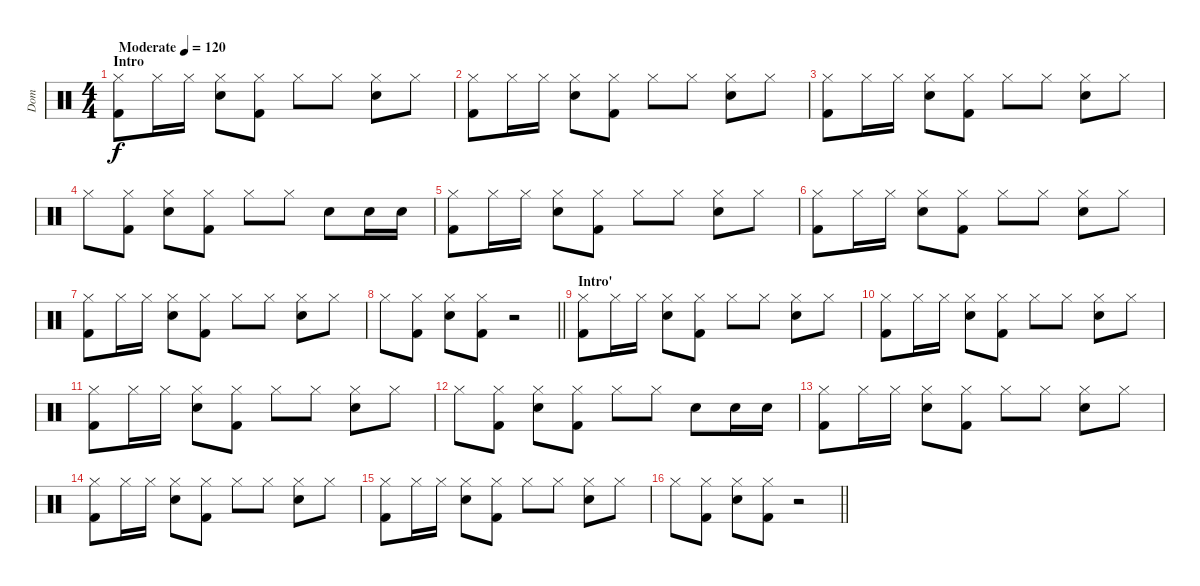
\track ("Dom" "Dom") {instrument percussion}
\staff {score}
\articulation defaults
\ts (4 4)
\section ("" "Intro")
\tempo (120 "Moderate")
\clef neutral
\ks c
("Kick (hit) 2" "Hi-Hat (closed)").8{dy f} "Hi-Hat (closed)".16 "Hi-Hat (closed)".16 ("Snare (hit) 2" "Hi-Hat (closed)").8 ("Kick (hit) 2" "Hi-Hat (closed)").8 "Hi-Hat (closed)".8 "Hi-Hat (closed)".8 ("Snare (hit) 2" "Hi-Hat (closed)").8 "Hi-Hat (closed)".8 |
("Kick (hit) 2" "Hi-Hat (closed)").8 "Hi-Hat (closed)".16 "Hi-Hat (closed)".16 ("Snare (hit) 2" "Hi-Hat (closed)").8 ("Kick (hit) 2" "Hi-Hat (closed)").8 "Hi-Hat (closed)".8 "Hi-Hat (closed)".8 ("Snare (hit) 2" "Hi-Hat (closed)").8 "Hi-Hat (closed)".8 |
("Kick (hit) 2" "Hi-Hat (closed)").8 "Hi-Hat (closed)".16 "Hi-Hat (closed)".16 ("Snare (hit) 2" "Hi-Hat (closed)").8 ("Kick (hit) 2" "Hi-Hat (closed)").8 "Hi-Hat (closed)".8 "Hi-Hat (closed)".8 ("Snare (hit) 2" "Hi-Hat (closed)").8 "Hi-Hat (closed)".8 |
"Hi-Hat (closed)".8 ("Kick (hit) 2" "Hi-Hat (closed)").8 ("Snare (hit) 2" "Hi-Hat (closed)").8 ("Kick (hit) 2" "Hi-Hat (closed)").8 "Hi-Hat (closed)".8 "Hi-Hat (closed)".8 "Snare (hit) 2".8 "Snare (hit) 2".16 "Snare (hit) 2".16 |
("Kick (hit) 2" "Hi-Hat (closed)").8 "Hi-Hat (closed)".16 "Hi-Hat (closed)".16 ("Snare (hit) 2" "Hi-Hat (closed)").8 ("Kick (hit) 2" "Hi-Hat (closed)").8 "Hi-Hat (closed)".8 "Hi-Hat (closed)".8 ("Snare (hit) 2" "Hi-Hat (closed)").8 "Hi-Hat (closed)".8 |
("Kick (hit) 2" "Hi-Hat (closed)").8 "Hi-Hat (closed)".16 "Hi-Hat (closed)".16 ("Snare (hit) 2" "Hi-Hat (closed)").8 ("Kick (hit) 2" "Hi-Hat (closed)").8 "Hi-Hat (closed)".8 "Hi-Hat (closed)".8 ("Snare (hit) 2" "Hi-Hat (closed)").8 "Hi-Hat (closed)".8 |
("Kick (hit) 2" "Hi-Hat (closed)").8 "Hi-Hat (closed)".16 "Hi-Hat (closed)".16 ("Snare (hit) 2" "Hi-Hat (closed)").8 ("Kick (hit) 2" "Hi-Hat (closed)").8 "Hi-Hat (closed)".8 "Hi-Hat (closed)".8 ("Snare (hit) 2" "Hi-Hat (closed)").8 "Hi-Hat (closed)".8 |
\barLineRight lightlight "Hi-Hat (closed)".8
("Kick (hit) 2" "Hi-Hat (closed)").8 ("Snare (hit) 2" "Hi-Hat (closed)").8 ("Kick (hit) 2" "Hi-Hat (closed)").8 r.2 |
\section ("" "Intro'")
("Kick (hit) 2" "Hi-Hat (closed)").8 "Hi-Hat (closed)".16 "Hi-Hat (closed)".16 ("Snare (hit) 2" "Hi-Hat (closed)").8 ("Kick (hit) 2" "Hi-Hat (closed)").8 "Hi-Hat (closed)".8 "Hi-Hat (closed)".8 ("Snare (hit) 2" "Hi-Hat (closed)").8 "Hi-Hat (closed)".8 |
("Kick (hit) 2" "Hi-Hat (closed)").8 "Hi-Hat (closed)".16 "Hi-Hat (closed)".16 ("Snare (hit) 2" "Hi-Hat (closed)").8 ("Kick (hit) 2" "Hi-Hat (closed)").8 "Hi-Hat (closed)".8 "Hi-Hat (closed)".8 ("Snare (hit) 2" "Hi-Hat (closed)").8 "Hi-Hat (closed)".8 |
("Kick (hit) 2" "Hi-Hat (closed)").8 "Hi-Hat (closed)".16 "Hi-Hat (closed)".16 ("Snare (hit) 2" "Hi-Hat (closed)").8 ("Kick (hit) 2" "Hi-Hat (closed)").8 "Hi-Hat (closed)".8 "Hi-Hat (closed)".8 ("Snare (hit) 2" "Hi-Hat (closed)").8 "Hi-Hat (closed)".8 |
"Hi-Hat (closed)".8 ("Kick (hit) 2" "Hi-Hat (closed)").8 ("Snare (hit) 2" "Hi-Hat (closed)").8 ("Kick (hit) 2" "Hi-Hat (closed)").8 "Hi-Hat (closed)".8 "Hi-Hat (closed)".8 "Snare (hit) 2".8 "Snare (hit) 2".16 "Snare (hit) 2".16 |
("Kick (hit) 2" "Hi-Hat (closed)").8 "Hi-Hat (closed)".16 "Hi-Hat (closed)".16 ("Snare (hit) 2" "Hi-Hat (closed)").8 ("Kick (hit) 2" "Hi-Hat (closed)").8 "Hi-Hat (closed)".8 "Hi-Hat (closed)".8 ("Snare (hit) 2" "Hi-Hat (closed)").8 "Hi-Hat (closed)".8 |
("Kick (hit) 2" "Hi-Hat (closed)").8 "Hi-Hat (closed)".16 "Hi-Hat (closed)".16 ("Snare (hit) 2" "Hi-Hat (closed)").8 ("Kick (hit) 2" "Hi-Hat (closed)").8 "Hi-Hat (closed)".8 "Hi-Hat (closed)".8 ("Snare (hit) 2" "Hi-Hat (closed)").8 "Hi-Hat (closed)".8 |
("Kick (hit) 2" "Hi-Hat (closed)").8 "Hi-Hat (closed)".16 "Hi-Hat (closed)".16 ("Snare (hit) 2" "Hi-Hat (closed)").8 ("Kick (hit) 2" "Hi-Hat (closed)").8 "Hi-Hat (closed)".8 "Hi-Hat (closed)".8 ("Snare (hit) 2" "Hi-Hat (closed)").8 "Hi-Hat (closed)".8 |
\barLineRight lightlight "Hi-Hat (closed)".8
("Kick (hit) 2" "Hi-Hat (closed)").8 ("Snare (hit) 2" "Hi-Hat (closed)").8 ("Kick (hit) 2" "Hi-Hat (closed)").8 r.2
